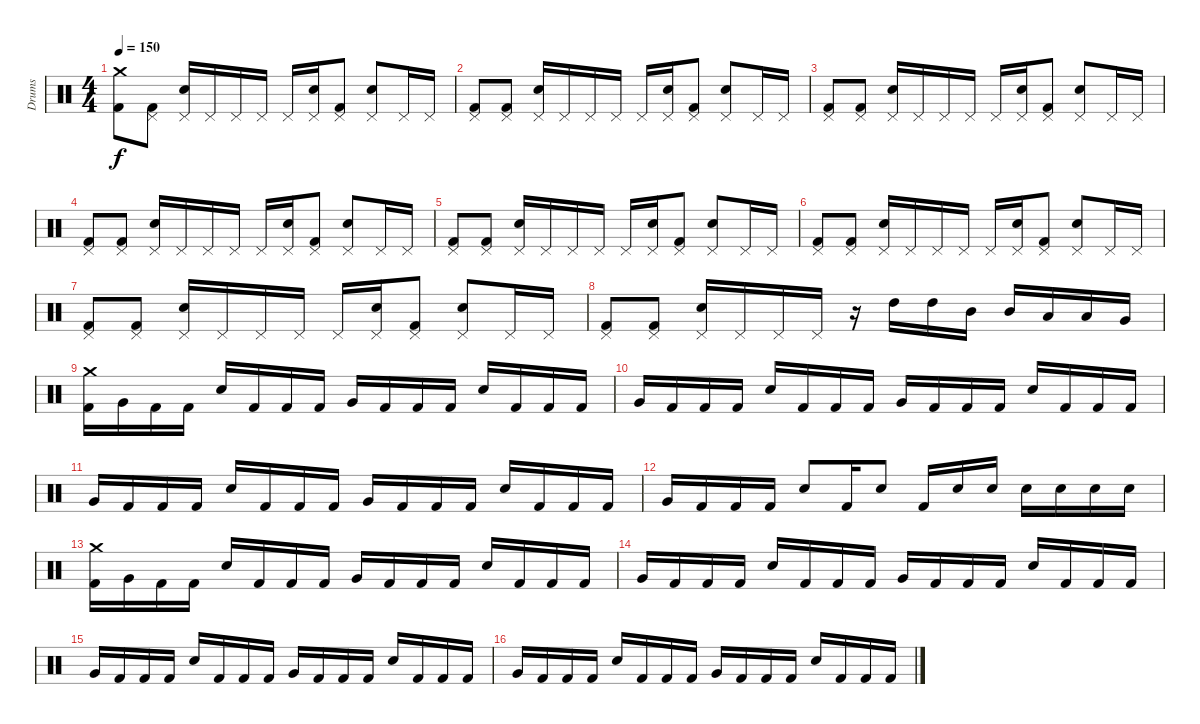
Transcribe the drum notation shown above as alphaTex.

\track ("Drums" "Drums") {instrument percussion}
\staff {score}
\articulation defaults
\ts (4 4)
\tempo 150
\clef neutral
\ks c
("Crash medium (hit)" "Kick (hit) 2").8{dy f} ("Pedal Hi-Hat (hit)" "Kick (hit) 2").8 ("Pedal Hi-Hat (hit)" "Electric Snare (hit)").16 "Pedal Hi-Hat (hit)".16 "Pedal Hi-Hat (hit)".16 "Pedal Hi-Hat (hit)".16 "Pedal Hi-Hat (hit)".16 ("Pedal Hi-Hat (hit)" "Electric Snare (hit)").16 ("Pedal Hi-Hat (hit)" "Kick (hit) 2").8 ("Pedal Hi-Hat (hit)" "Electric Snare (hit)").8 "Pedal Hi-Hat (hit)".16 "Pedal Hi-Hat (hit)".16 |
("Pedal Hi-Hat (hit)" "Kick (hit) 2").8 ("Pedal Hi-Hat (hit)" "Kick (hit) 2").8 ("Pedal Hi-Hat (hit)" "Electric Snare (hit)").16 "Pedal Hi-Hat (hit)".16 "Pedal Hi-Hat (hit)".16 "Pedal Hi-Hat (hit)".16 "Pedal Hi-Hat (hit)".16 ("Pedal Hi-Hat (hit)" "Electric Snare (hit)").16 ("Pedal Hi-Hat (hit)" "Kick (hit) 2").8 ("Pedal Hi-Hat (hit)" "Electric Snare (hit)").8 "Pedal Hi-Hat (hit)".16 "Pedal Hi-Hat (hit)".16 |
("Pedal Hi-Hat (hit)" "Kick (hit) 2").8 ("Pedal Hi-Hat (hit)" "Kick (hit) 2").8 ("Pedal Hi-Hat (hit)" "Electric Snare (hit)").16 "Pedal Hi-Hat (hit)".16 "Pedal Hi-Hat (hit)".16 "Pedal Hi-Hat (hit)".16 "Pedal Hi-Hat (hit)".16 ("Pedal Hi-Hat (hit)" "Electric Snare (hit)").16 ("Pedal Hi-Hat (hit)" "Kick (hit) 2").8 ("Pedal Hi-Hat (hit)" "Electric Snare (hit)").8 "Pedal Hi-Hat (hit)".16 "Pedal Hi-Hat (hit)".16 |
("Pedal Hi-Hat (hit)" "Kick (hit) 2").8 ("Pedal Hi-Hat (hit)" "Kick (hit) 2").8 ("Pedal Hi-Hat (hit)" "Electric Snare (hit)").16 "Pedal Hi-Hat (hit)".16 "Pedal Hi-Hat (hit)".16 "Pedal Hi-Hat (hit)".16 "Pedal Hi-Hat (hit)".16 ("Pedal Hi-Hat (hit)" "Electric Snare (hit)").16 ("Pedal Hi-Hat (hit)" "Kick (hit) 2").8 ("Pedal Hi-Hat (hit)" "Electric Snare (hit)").8 "Pedal Hi-Hat (hit)".16 "Pedal Hi-Hat (hit)".16 |
("Pedal Hi-Hat (hit)" "Kick (hit) 2").8 ("Pedal Hi-Hat (hit)" "Kick (hit) 2").8 ("Pedal Hi-Hat (hit)" "Electric Snare (hit)").16 "Pedal Hi-Hat (hit)".16 "Pedal Hi-Hat (hit)".16 "Pedal Hi-Hat (hit)".16 "Pedal Hi-Hat (hit)".16 ("Pedal Hi-Hat (hit)" "Electric Snare (hit)").16 ("Pedal Hi-Hat (hit)" "Kick (hit) 2").8 ("Pedal Hi-Hat (hit)" "Electric Snare (hit)").8 "Pedal Hi-Hat (hit)".16 "Pedal Hi-Hat (hit)".16 |
("Pedal Hi-Hat (hit)" "Kick (hit) 2").8 ("Pedal Hi-Hat (hit)" "Kick (hit) 2").8 ("Pedal Hi-Hat (hit)" "Electric Snare (hit)").16 "Pedal Hi-Hat (hit)".16 "Pedal Hi-Hat (hit)".16 "Pedal Hi-Hat (hit)".16 "Pedal Hi-Hat (hit)".16 ("Pedal Hi-Hat (hit)" "Electric Snare (hit)").16 ("Pedal Hi-Hat (hit)" "Kick (hit) 2").8 ("Pedal Hi-Hat (hit)" "Electric Snare (hit)").8 "Pedal Hi-Hat (hit)".16 "Pedal Hi-Hat (hit)".16 |
("Pedal Hi-Hat (hit)" "Kick (hit) 2").8 ("Pedal Hi-Hat (hit)" "Kick (hit) 2").8 ("Pedal Hi-Hat (hit)" "Electric Snare (hit)").16 "Pedal Hi-Hat (hit)".16 "Pedal Hi-Hat (hit)".16 "Pedal Hi-Hat (hit)".16 "Pedal Hi-Hat (hit)".16 ("Pedal Hi-Hat (hit)" "Electric Snare (hit)").16 ("Pedal Hi-Hat (hit)" "Kick (hit) 2").8 ("Pedal Hi-Hat (hit)" "Electric Snare (hit)").8 "Pedal Hi-Hat (hit)".16 "Pedal Hi-Hat (hit)".16 |
("Pedal Hi-Hat (hit)" "Kick (hit) 2").8 ("Pedal Hi-Hat (hit)" "Kick (hit) 2").8 ("Pedal Hi-Hat (hit)" "Electric Snare (hit)").16 "Pedal Hi-Hat (hit)".16 "Pedal Hi-Hat (hit)".16 "Pedal Hi-Hat (hit)".16 r.16 "High Tom (hit)".16 "High Tom (hit)".16 "Mid Tom (hit)".16 "Mid Tom (hit)".16 "Low Tom (hit)".16 "Low Tom (hit)".16 "Very Low Tom (hit)".16 |
("Crash medium (hit)" "Kick (hit) 2").16 "Very Low Tom (hit)".16 "Kick (hit) 2".16 "Kick (hit) 2".16 "Electric Snare (hit)".16 "Kick (hit) 2".16 "Kick (hit) 2".16 "Kick (hit) 2".16 "Very Low Tom (hit)".16 "Kick (hit) 2".16 "Kick (hit) 2".16 "Kick (hit) 2".16 "Electric Snare (hit)".16 "Kick (hit) 2".16 "Kick (hit) 2".16 "Kick (hit) 2".16 |
"Very Low Tom (hit)".16 "Kick (hit) 2".16 "Kick (hit) 2".16 "Kick (hit) 2".16 "Electric Snare (hit)".16 "Kick (hit) 2".16 "Kick (hit) 2".16 "Kick (hit) 2".16 "Very Low Tom (hit)".16 "Kick (hit) 2".16 "Kick (hit) 2".16 "Kick (hit) 2".16 "Electric Snare (hit)".16 "Kick (hit) 2".16 "Kick (hit) 2".16 "Kick (hit) 2".16 |
"Very Low Tom (hit)".16 "Kick (hit) 2".16 "Kick (hit) 2".16 "Kick (hit) 2".16 "Electric Snare (hit)".16 "Kick (hit) 2".16 "Kick (hit) 2".16 "Kick (hit) 2".16 "Very Low Tom (hit)".16 "Kick (hit) 2".16 "Kick (hit) 2".16 "Kick (hit) 2".16 "Electric Snare (hit)".16 "Kick (hit) 2".16 "Kick (hit) 2".16 "Kick (hit) 2".16 |
"Very Low Tom (hit)".16 "Kick (hit) 2".16 "Kick (hit) 2".16 "Kick (hit) 2".16 "Electric Snare (hit)".8 "Kick (hit) 2".16 "Electric Snare (hit)".8 "Kick (hit) 2".16 "Electric Snare (hit)".16 "Electric Snare (hit)".16 "Electric Snare (hit)".16 "Electric Snare (hit)".16 "Electric Snare (hit)".16 "Electric Snare (hit)".16 |
("Crash medium (hit)" "Kick (hit) 2").16 "Very Low Tom (hit)".16 "Kick (hit) 2".16 "Kick (hit) 2".16 "Electric Snare (hit)".16 "Kick (hit) 2".16 "Kick (hit) 2".16 "Kick (hit) 2".16 "Very Low Tom (hit)".16 "Kick (hit) 2".16 "Kick (hit) 2".16 "Kick (hit) 2".16 "Electric Snare (hit)".16 "Kick (hit) 2".16 "Kick (hit) 2".16 "Kick (hit) 2".16 |
"Very Low Tom (hit)".16 "Kick (hit) 2".16 "Kick (hit) 2".16 "Kick (hit) 2".16 "Electric Snare (hit)".16 "Kick (hit) 2".16 "Kick (hit) 2".16 "Kick (hit) 2".16 "Very Low Tom (hit)".16 "Kick (hit) 2".16 "Kick (hit) 2".16 "Kick (hit) 2".16 "Electric Snare (hit)".16 "Kick (hit) 2".16 "Kick (hit) 2".16 "Kick (hit) 2".16 |
"Very Low Tom (hit)".16 "Kick (hit) 2".16 "Kick (hit) 2".16 "Kick (hit) 2".16 "Electric Snare (hit)".16 "Kick (hit) 2".16 "Kick (hit) 2".16 "Kick (hit) 2".16 "Very Low Tom (hit)".16 "Kick (hit) 2".16 "Kick (hit) 2".16 "Kick (hit) 2".16 "Electric Snare (hit)".16 "Kick (hit) 2".16 "Kick (hit) 2".16 "Kick (hit) 2".16 |
"Very Low Tom (hit)".16 "Kick (hit) 2".16 "Kick (hit) 2".16 "Kick (hit) 2".16 "Electric Snare (hit)".16 "Kick (hit) 2".16 "Kick (hit) 2".16 "Kick (hit) 2".16 "Very Low Tom (hit)".16 "Kick (hit) 2".16 "Kick (hit) 2".16 "Kick (hit) 2".16 "Electric Snare (hit)".16 "Kick (hit) 2".16 "Kick (hit) 2".16 "Kick (hit) 2".16
